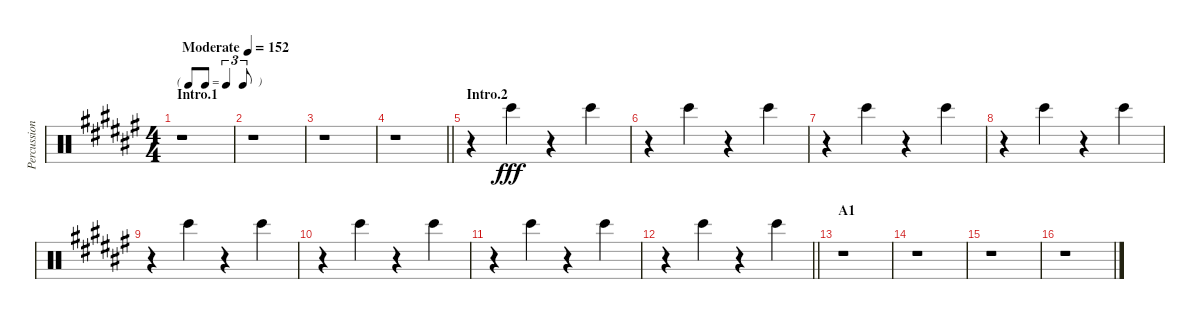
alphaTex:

\track ("Percussion" "Percussion") {instrument percussion}
\staff {score}
\articulation defaults
\ts (4 4)
\tf triplet8th
\section ("" "Intro.1")
\tempo (152 "Moderate")
\clef neutral
\ks f#
r.1{dy fff} |
r.1 |
r.1 |
\barLineRight lightlight
r.1 |
\section ("" "Intro.2")
r.4 "Bongo High (hit)".4 r.4 "Bongo High (hit)".4 |
r.4 "Bongo High (hit)".4 r.4 "Bongo High (hit)".4 |
r.4 "Bongo High (hit)".4 r.4 "Bongo High (hit)".4 |
r.4 "Bongo High (hit)".4 r.4 "Bongo High (hit)".4 |
r.4 "Bongo High (hit)".4 r.4 "Bongo High (hit)".4 |
r.4 "Bongo High (hit)".4 r.4 "Bongo High (hit)".4 |
r.4 "Bongo High (hit)".4 r.4 "Bongo High (hit)".4 |
\barLineRight lightlight
r.4 "Bongo High (hit)".4 r.4 "Bongo High (hit)".4 |
\section ("" "A1")
r.1 |
r.1 |
r.1 |
r.1
